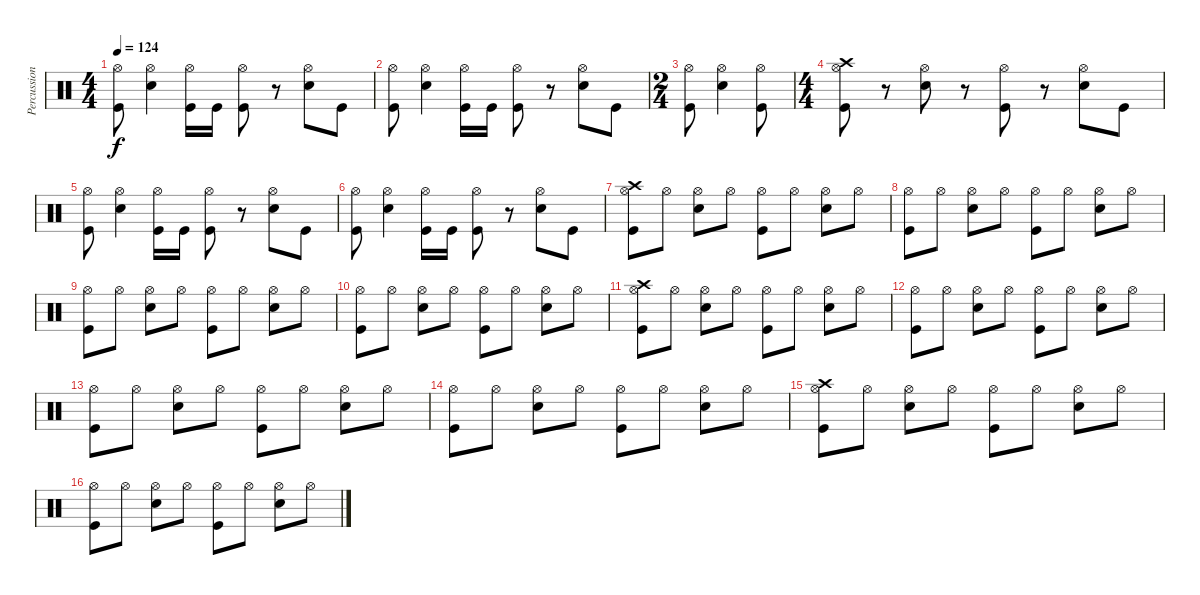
\track ("Percussions" "Percussion") {instrument percussion}
\staff {score}
\articulation defaults
\ts (4 4)
\tempo 124
\clef neutral
\ks c
("Hi-Hat (open)" "Kick (hit)").8{dy f} ("Hi-Hat (open)" "Electric Snare (hit)").4 ("Hi-Hat (open)" "Kick (hit)").16 "Kick (hit)".16 ("Hi-Hat (open)" "Kick (hit)").8 r.8 ("Hi-Hat (open)" "Electric Snare (hit)").8 "Kick (hit)".8 |
("Hi-Hat (open)" "Kick (hit)").8 ("Hi-Hat (open)" "Electric Snare (hit)").4 ("Hi-Hat (open)" "Kick (hit)").16 "Kick (hit)".16 ("Hi-Hat (open)" "Kick (hit)").8 r.8 ("Hi-Hat (open)" "Electric Snare (hit)").8 "Kick (hit)".8 |
\ts (2 4)
("Hi-Hat (open)" "Kick (hit)").8 ("Hi-Hat (open)" "Electric Snare (hit)").4 ("Hi-Hat (open)" "Kick (hit)").8 |
\ts (4 4)
("Hi-Hat (open)" "Kick (hit)" "Crash high (hit)").8 r.8 ("Hi-Hat (open)" "Electric Snare (hit)").8 r.8 ("Hi-Hat (open)" "Kick (hit)").8 r.8 ("Hi-Hat (open)" "Electric Snare (hit)").8 "Kick (hit)".8 |
("Hi-Hat (open)" "Kick (hit)").8 ("Hi-Hat (open)" "Electric Snare (hit)").4 ("Hi-Hat (open)" "Kick (hit)").16 "Kick (hit)".16 ("Hi-Hat (open)" "Kick (hit)").8 r.8 ("Hi-Hat (open)" "Electric Snare (hit)").8 "Kick (hit)".8 |
("Hi-Hat (open)" "Kick (hit)").8 ("Hi-Hat (open)" "Electric Snare (hit)").4 ("Hi-Hat (open)" "Kick (hit)").16 "Kick (hit)".16 ("Hi-Hat (open)" "Kick (hit)").8 r.8 ("Hi-Hat (open)" "Electric Snare (hit)").8 "Kick (hit)".8 |
("Hi-Hat (open)" "Kick (hit)" "Crash high (hit)").8 "Hi-Hat (open)".8 ("Hi-Hat (open)" "Electric Snare (hit)").8 "Hi-Hat (open)".8 ("Hi-Hat (open)" "Kick (hit)").8 "Hi-Hat (open)".8 ("Hi-Hat (open)" "Electric Snare (hit)").8 "Hi-Hat (open)".8 |
("Hi-Hat (open)" "Kick (hit)").8 "Hi-Hat (open)".8 ("Hi-Hat (open)" "Electric Snare (hit)").8 "Hi-Hat (open)".8 ("Hi-Hat (open)" "Kick (hit)").8 "Hi-Hat (open)".8 ("Hi-Hat (open)" "Electric Snare (hit)").8 "Hi-Hat (open)".8 |
("Hi-Hat (open)" "Kick (hit)").8 "Hi-Hat (open)".8 ("Hi-Hat (open)" "Electric Snare (hit)").8 "Hi-Hat (open)".8 ("Hi-Hat (open)" "Kick (hit)").8 "Hi-Hat (open)".8 ("Hi-Hat (open)" "Electric Snare (hit)").8 "Hi-Hat (open)".8 |
("Hi-Hat (open)" "Kick (hit)").8 "Hi-Hat (open)".8 ("Hi-Hat (open)" "Electric Snare (hit)").8 "Hi-Hat (open)".8 ("Hi-Hat (open)" "Kick (hit)").8 "Hi-Hat (open)".8 ("Hi-Hat (open)" "Electric Snare (hit)").8 "Hi-Hat (open)".8 |
("Hi-Hat (open)" "Kick (hit)" "Crash high (hit)").8 "Hi-Hat (open)".8 ("Hi-Hat (open)" "Electric Snare (hit)").8 "Hi-Hat (open)".8 ("Hi-Hat (open)" "Kick (hit)").8 "Hi-Hat (open)".8 ("Hi-Hat (open)" "Electric Snare (hit)").8 "Hi-Hat (open)".8 |
("Hi-Hat (open)" "Kick (hit)").8 "Hi-Hat (open)".8 ("Hi-Hat (open)" "Electric Snare (hit)").8 "Hi-Hat (open)".8 ("Hi-Hat (open)" "Kick (hit)").8 "Hi-Hat (open)".8 ("Hi-Hat (open)" "Electric Snare (hit)").8 "Hi-Hat (open)".8 |
("Hi-Hat (open)" "Kick (hit)").8 "Hi-Hat (open)".8 ("Hi-Hat (open)" "Electric Snare (hit)").8 "Hi-Hat (open)".8 ("Hi-Hat (open)" "Kick (hit)").8 "Hi-Hat (open)".8 ("Hi-Hat (open)" "Electric Snare (hit)").8 "Hi-Hat (open)".8 |
("Hi-Hat (open)" "Kick (hit)").8 "Hi-Hat (open)".8 ("Hi-Hat (open)" "Electric Snare (hit)").8 "Hi-Hat (open)".8 ("Hi-Hat (open)" "Kick (hit)").8 "Hi-Hat (open)".8 ("Hi-Hat (open)" "Electric Snare (hit)").8 "Hi-Hat (open)".8 |
("Hi-Hat (open)" "Kick (hit)" "Crash high (hit)").8 "Hi-Hat (open)".8 ("Hi-Hat (open)" "Electric Snare (hit)").8 "Hi-Hat (open)".8 ("Hi-Hat (open)" "Kick (hit)").8 "Hi-Hat (open)".8 ("Hi-Hat (open)" "Electric Snare (hit)").8 "Hi-Hat (open)".8 |
("Hi-Hat (open)" "Kick (hit)").8 "Hi-Hat (open)".8 ("Hi-Hat (open)" "Electric Snare (hit)").8 "Hi-Hat (open)".8 ("Hi-Hat (open)" "Kick (hit)").8 "Hi-Hat (open)".8 ("Hi-Hat (open)" "Electric Snare (hit)").8 "Hi-Hat (open)".8
